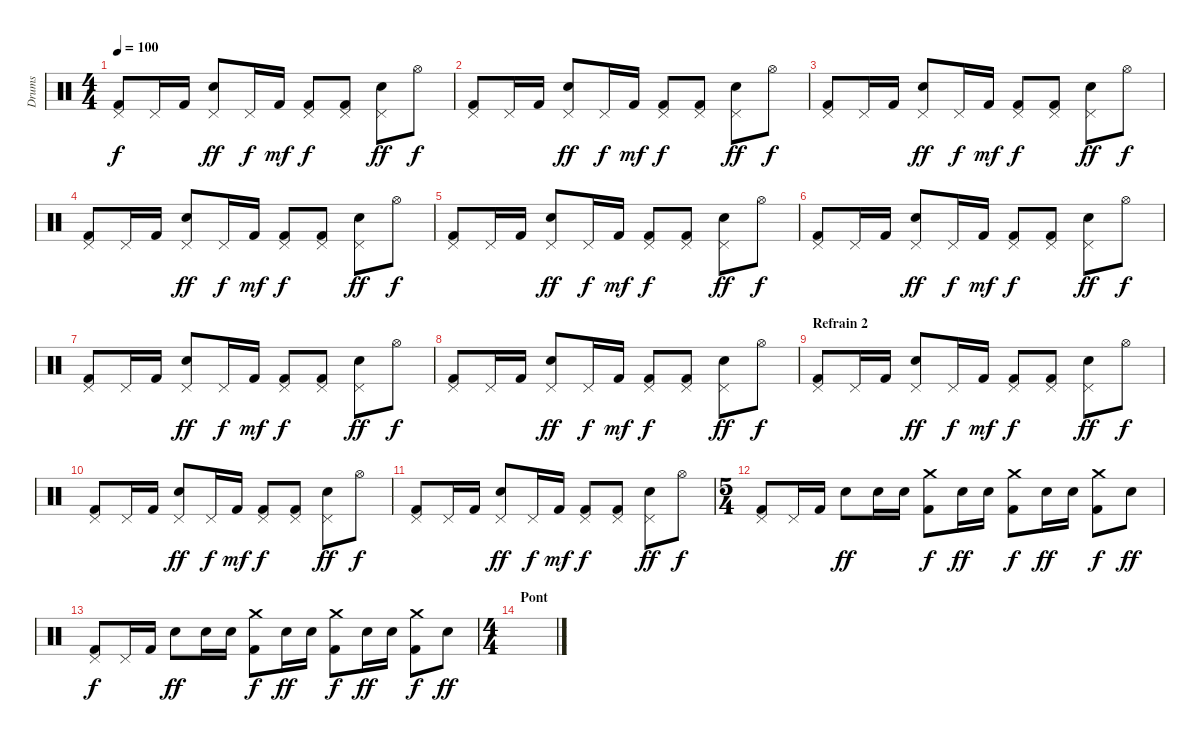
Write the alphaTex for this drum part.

\track ("Drums" "Drums") {instrument percussion}
\staff {score}
\articulation defaults
\ts (4 4)
\tempo 100
\clef neutral
\ks c
("Pedal Hi-Hat (hit)" "Kick (hit) 2").8{dy f} "Pedal Hi-Hat (hit)".16 "Kick (hit) 2".16 ("Pedal Hi-Hat (hit)" "Snare (hit) 2").8{dy ff} "Pedal Hi-Hat (hit)".16{dy f} "Kick (hit) 2".16{dy mf} ("Pedal Hi-Hat (hit)" "Kick (hit) 2").8{dy f} ("Pedal Hi-Hat (hit)" "Kick (hit) 2").8 ("Pedal Hi-Hat (hit)" "Snare (hit) 2").8{dy ff} "Hi-Hat (open)".8{dy f} |
("Pedal Hi-Hat (hit)" "Kick (hit) 2").8 "Pedal Hi-Hat (hit)".16 "Kick (hit) 2".16 ("Pedal Hi-Hat (hit)" "Snare (hit) 2").8{dy ff} "Pedal Hi-Hat (hit)".16{dy f} "Kick (hit) 2".16{dy mf} ("Pedal Hi-Hat (hit)" "Kick (hit) 2").8{dy f} ("Pedal Hi-Hat (hit)" "Kick (hit) 2").8 ("Pedal Hi-Hat (hit)" "Snare (hit) 2").8{dy ff} "Hi-Hat (open)".8{dy f} |
("Pedal Hi-Hat (hit)" "Kick (hit) 2").8 "Pedal Hi-Hat (hit)".16 "Kick (hit) 2".16 ("Pedal Hi-Hat (hit)" "Snare (hit) 2").8{dy ff} "Pedal Hi-Hat (hit)".16{dy f} "Kick (hit) 2".16{dy mf} ("Pedal Hi-Hat (hit)" "Kick (hit) 2").8{dy f} ("Pedal Hi-Hat (hit)" "Kick (hit) 2").8 ("Pedal Hi-Hat (hit)" "Snare (hit) 2").8{dy ff} "Hi-Hat (open)".8{dy f} |
("Pedal Hi-Hat (hit)" "Kick (hit) 2").8 "Pedal Hi-Hat (hit)".16 "Kick (hit) 2".16 ("Pedal Hi-Hat (hit)" "Snare (hit) 2").8{dy ff} "Pedal Hi-Hat (hit)".16{dy f} "Kick (hit) 2".16{dy mf} ("Pedal Hi-Hat (hit)" "Kick (hit) 2").8{dy f} ("Pedal Hi-Hat (hit)" "Kick (hit) 2").8 ("Pedal Hi-Hat (hit)" "Snare (hit) 2").8{dy ff} "Hi-Hat (open)".8{dy f} |
("Pedal Hi-Hat (hit)" "Kick (hit) 2").8 "Pedal Hi-Hat (hit)".16 "Kick (hit) 2".16 ("Pedal Hi-Hat (hit)" "Snare (hit) 2").8{dy ff} "Pedal Hi-Hat (hit)".16{dy f} "Kick (hit) 2".16{dy mf} ("Pedal Hi-Hat (hit)" "Kick (hit) 2").8{dy f} ("Pedal Hi-Hat (hit)" "Kick (hit) 2").8 ("Pedal Hi-Hat (hit)" "Snare (hit) 2").8{dy ff} "Hi-Hat (open)".8{dy f} |
("Pedal Hi-Hat (hit)" "Kick (hit) 2").8 "Pedal Hi-Hat (hit)".16 "Kick (hit) 2".16 ("Pedal Hi-Hat (hit)" "Snare (hit) 2").8{dy ff} "Pedal Hi-Hat (hit)".16{dy f} "Kick (hit) 2".16{dy mf} ("Pedal Hi-Hat (hit)" "Kick (hit) 2").8{dy f} ("Pedal Hi-Hat (hit)" "Kick (hit) 2").8 ("Pedal Hi-Hat (hit)" "Snare (hit) 2").8{dy ff} "Hi-Hat (open)".8{dy f} |
("Pedal Hi-Hat (hit)" "Kick (hit) 2").8 "Pedal Hi-Hat (hit)".16 "Kick (hit) 2".16 ("Pedal Hi-Hat (hit)" "Snare (hit) 2").8{dy ff} "Pedal Hi-Hat (hit)".16{dy f} "Kick (hit) 2".16{dy mf} ("Pedal Hi-Hat (hit)" "Kick (hit) 2").8{dy f} ("Pedal Hi-Hat (hit)" "Kick (hit) 2").8 ("Pedal Hi-Hat (hit)" "Snare (hit) 2").8{dy ff} "Hi-Hat (open)".8{dy f} |
("Pedal Hi-Hat (hit)" "Kick (hit) 2").8 "Pedal Hi-Hat (hit)".16 "Kick (hit) 2".16 ("Pedal Hi-Hat (hit)" "Snare (hit) 2").8{dy ff} "Pedal Hi-Hat (hit)".16{dy f} "Kick (hit) 2".16{dy mf} ("Pedal Hi-Hat (hit)" "Kick (hit) 2").8{dy f} ("Pedal Hi-Hat (hit)" "Kick (hit) 2").8 ("Pedal Hi-Hat (hit)" "Snare (hit) 2").8{dy ff} "Hi-Hat (open)".8{dy f} |
\section ("" "Refrain 2")
("Pedal Hi-Hat (hit)" "Kick (hit) 2").8 "Pedal Hi-Hat (hit)".16 "Kick (hit) 2".16 ("Pedal Hi-Hat (hit)" "Snare (hit) 2").8{dy ff} "Pedal Hi-Hat (hit)".16{dy f} "Kick (hit) 2".16{dy mf} ("Pedal Hi-Hat (hit)" "Kick (hit) 2").8{dy f} ("Pedal Hi-Hat (hit)" "Kick (hit) 2").8 ("Pedal Hi-Hat (hit)" "Snare (hit) 2").8{dy ff} "Hi-Hat (open)".8{dy f} |
("Pedal Hi-Hat (hit)" "Kick (hit) 2").8 "Pedal Hi-Hat (hit)".16 "Kick (hit) 2".16 ("Pedal Hi-Hat (hit)" "Snare (hit) 2").8{dy ff} "Pedal Hi-Hat (hit)".16{dy f} "Kick (hit) 2".16{dy mf} ("Pedal Hi-Hat (hit)" "Kick (hit) 2").8{dy f} ("Pedal Hi-Hat (hit)" "Kick (hit) 2").8 ("Pedal Hi-Hat (hit)" "Snare (hit) 2").8{dy ff} "Hi-Hat (open)".8{dy f} |
("Pedal Hi-Hat (hit)" "Kick (hit) 2").8 "Pedal Hi-Hat (hit)".16 "Kick (hit) 2".16 ("Pedal Hi-Hat (hit)" "Snare (hit) 2").8{dy ff} "Pedal Hi-Hat (hit)".16{dy f} "Kick (hit) 2".16{dy mf} ("Pedal Hi-Hat (hit)" "Kick (hit) 2").8{dy f} ("Pedal Hi-Hat (hit)" "Kick (hit) 2").8 ("Pedal Hi-Hat (hit)" "Snare (hit) 2").8{dy ff} "Hi-Hat (open)".8{dy f} |
\ts (5 4)
("Pedal Hi-Hat (hit)" "Kick (hit) 2").8 "Pedal Hi-Hat (hit)".16 "Kick (hit) 2".16 "Snare (hit) 2".8{dy ff} "Snare (hit) 2".16 "Snare (hit) 2".16 ("Crash medium (hit)" "Kick (hit) 2").8{dy f} "Snare (hit) 2".16{dy ff} "Snare (hit) 2".16 ("Crash medium (hit)" "Kick (hit) 2").8{dy f} "Snare (hit) 2".16{dy ff} "Snare (hit) 2".16 ("Crash medium (hit)" "Kick (hit) 2").8{dy f} "Snare (hit) 2".8{dy ff} |
("Pedal Hi-Hat (hit)" "Kick (hit) 2").8{dy f} "Pedal Hi-Hat (hit)".16 "Kick (hit) 2".16 "Snare (hit) 2".8{dy ff} "Snare (hit) 2".16 "Snare (hit) 2".16 ("Crash medium (hit)" "Kick (hit) 2").8{dy f} "Snare (hit) 2".16{dy ff} "Snare (hit) 2".16 ("Crash medium (hit)" "Kick (hit) 2").8{dy f} "Snare (hit) 2".16{dy ff} "Snare (hit) 2".16 ("Crash medium (hit)" "Kick (hit) 2").8{dy f} "Snare (hit) 2".8{dy ff} |
\ts (4 4)
\section ("" "Pont")
